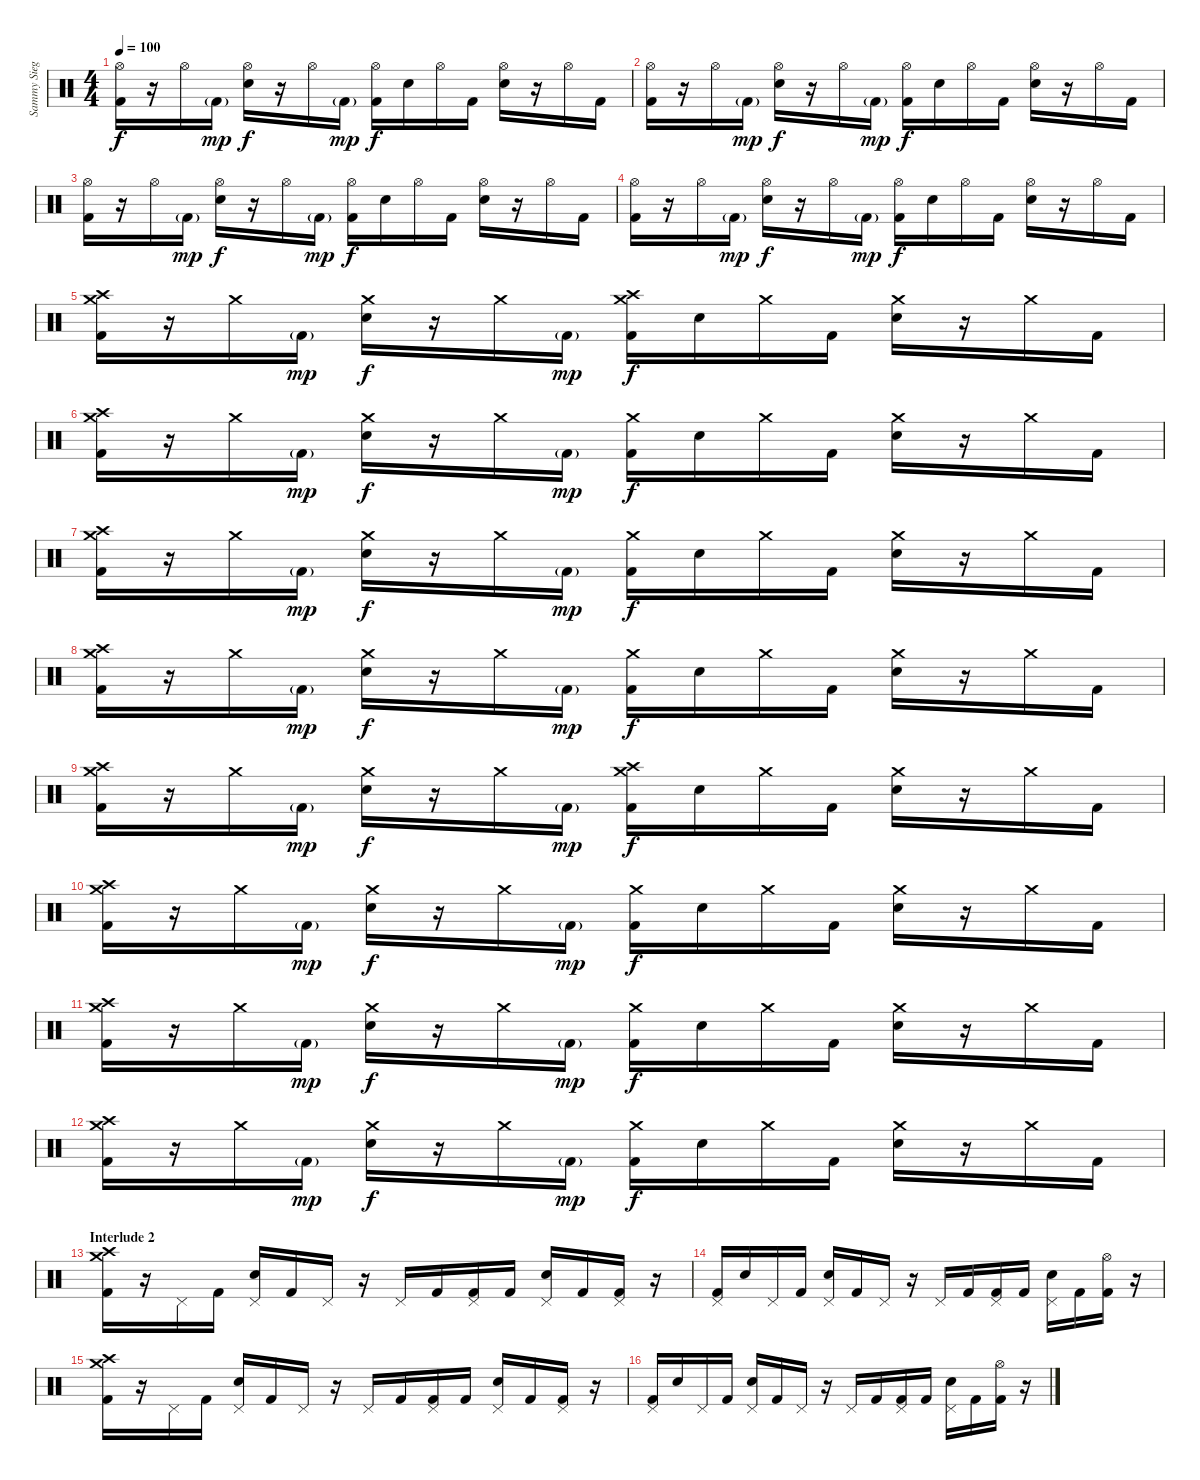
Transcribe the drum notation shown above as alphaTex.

\track ("Sammy Siegler" "Sammy Sieg") {instrument percussion}
\staff {score}
\articulation defaults
\ts (4 4)
\tempo 100
\clef neutral
\ks c
("Hi-Hat (open)" "Kick (hit) 2").16{dy f} r.16 "Hi-Hat (open)".16 "Kick (hit) 2"{g}.16{dy mp} ("Hi-Hat (open)" "Electric Snare (hit)").16{dy f} r.16 "Hi-Hat (open)".16 "Kick (hit) 2"{g}.16{dy mp} ("Hi-Hat (open)" "Kick (hit) 2").16{dy f} "Electric Snare (hit)".16 "Hi-Hat (open)".16 "Kick (hit) 2".16 ("Hi-Hat (open)" "Electric Snare (hit)").16 r.16 "Hi-Hat (open)".16 "Kick (hit) 2".16 |
("Hi-Hat (open)" "Kick (hit) 2").16 r.16 "Hi-Hat (open)".16 "Kick (hit) 2"{g}.16{dy mp} ("Hi-Hat (open)" "Electric Snare (hit)").16{dy f} r.16 "Hi-Hat (open)".16 "Kick (hit) 2"{g}.16{dy mp} ("Hi-Hat (open)" "Kick (hit) 2").16{dy f} "Electric Snare (hit)".16 "Hi-Hat (open)".16 "Kick (hit) 2".16 ("Hi-Hat (open)" "Electric Snare (hit)").16 r.16 "Hi-Hat (open)".16 "Kick (hit) 2".16 |
("Hi-Hat (open)" "Kick (hit) 2").16 r.16 "Hi-Hat (open)".16 "Kick (hit) 2"{g}.16{dy mp} ("Hi-Hat (open)" "Electric Snare (hit)").16{dy f} r.16 "Hi-Hat (open)".16 "Kick (hit) 2"{g}.16{dy mp} ("Hi-Hat (open)" "Kick (hit) 2").16{dy f} "Electric Snare (hit)".16 "Hi-Hat (open)".16 "Kick (hit) 2".16 ("Hi-Hat (open)" "Electric Snare (hit)").16 r.16 "Hi-Hat (open)".16 "Kick (hit) 2".16 |
("Hi-Hat (open)" "Kick (hit) 2").16 r.16 "Hi-Hat (open)".16 "Kick (hit) 2"{g}.16{dy mp} ("Hi-Hat (open)" "Electric Snare (hit)").16{dy f} r.16 "Hi-Hat (open)".16 "Kick (hit) 2"{g}.16{dy mp} ("Hi-Hat (open)" "Kick (hit) 2").16{dy f} "Electric Snare (hit)".16 "Hi-Hat (open)".16 "Kick (hit) 2".16 ("Hi-Hat (open)" "Electric Snare (hit)").16 r.16 "Hi-Hat (open)".16 "Kick (hit) 2".16 |
("Crash medium (hit)" "Crash high (hit)" "Kick (hit) 2").16 r.16 "Crash medium (hit)".16 "Kick (hit) 2"{g}.16{dy mp} ("Crash medium (hit)" "Electric Snare (hit)").16{dy f} r.16 "Crash medium (hit)".16 "Kick (hit) 2"{g}.16{dy mp} ("Crash medium (hit)" "Crash high (hit)" "Kick (hit) 2").16{dy f} "Electric Snare (hit)".16 "Crash medium (hit)".16 "Kick (hit) 2".16 ("Crash medium (hit)" "Electric Snare (hit)").16 r.16 "Crash medium (hit)".16 "Kick (hit) 2".16 |
("Crash medium (hit)" "Crash high (hit)" "Kick (hit) 2").16 r.16 "Crash medium (hit)".16 "Kick (hit) 2"{g}.16{dy mp} ("Crash medium (hit)" "Electric Snare (hit)").16{dy f} r.16 "Crash medium (hit)".16 "Kick (hit) 2"{g}.16{dy mp} ("Crash medium (hit)" "Kick (hit) 2").16{dy f} "Electric Snare (hit)".16 "Crash medium (hit)".16 "Kick (hit) 2".16 ("Crash medium (hit)" "Electric Snare (hit)").16 r.16 "Crash medium (hit)".16 "Kick (hit) 2".16 |
("Crash medium (hit)" "Crash high (hit)" "Kick (hit) 2").16 r.16 "Crash medium (hit)".16 "Kick (hit) 2"{g}.16{dy mp} ("Crash medium (hit)" "Electric Snare (hit)").16{dy f} r.16 "Crash medium (hit)".16 "Kick (hit) 2"{g}.16{dy mp} ("Crash medium (hit)" "Kick (hit) 2").16{dy f} "Electric Snare (hit)".16 "Crash medium (hit)".16 "Kick (hit) 2".16 ("Crash medium (hit)" "Electric Snare (hit)").16 r.16 "Crash medium (hit)".16 "Kick (hit) 2".16 |
("Crash medium (hit)" "Crash high (hit)" "Kick (hit) 2").16 r.16 "Crash medium (hit)".16 "Kick (hit) 2"{g}.16{dy mp} ("Crash medium (hit)" "Electric Snare (hit)").16{dy f} r.16 "Crash medium (hit)".16 "Kick (hit) 2"{g}.16{dy mp} ("Crash medium (hit)" "Kick (hit) 2").16{dy f} "Electric Snare (hit)".16 "Crash medium (hit)".16 "Kick (hit) 2".16 ("Crash medium (hit)" "Electric Snare (hit)").16 r.16 "Crash medium (hit)".16 "Kick (hit) 2".16 |
("Crash medium (hit)" "Crash high (hit)" "Kick (hit) 2").16 r.16 "Crash medium (hit)".16 "Kick (hit) 2"{g}.16{dy mp} ("Crash medium (hit)" "Electric Snare (hit)").16{dy f} r.16 "Crash medium (hit)".16 "Kick (hit) 2"{g}.16{dy mp} ("Crash medium (hit)" "Crash high (hit)" "Kick (hit) 2").16{dy f} "Electric Snare (hit)".16 "Crash medium (hit)".16 "Kick (hit) 2".16 ("Crash medium (hit)" "Electric Snare (hit)").16 r.16 "Crash medium (hit)".16 "Kick (hit) 2".16 |
("Crash medium (hit)" "Crash high (hit)" "Kick (hit) 2").16 r.16 "Crash medium (hit)".16 "Kick (hit) 2"{g}.16{dy mp} ("Crash medium (hit)" "Electric Snare (hit)").16{dy f} r.16 "Crash medium (hit)".16 "Kick (hit) 2"{g}.16{dy mp} ("Crash medium (hit)" "Kick (hit) 2").16{dy f} "Electric Snare (hit)".16 "Crash medium (hit)".16 "Kick (hit) 2".16 ("Crash medium (hit)" "Electric Snare (hit)").16 r.16 "Crash medium (hit)".16 "Kick (hit) 2".16 |
("Crash medium (hit)" "Crash high (hit)" "Kick (hit) 2").16 r.16 "Crash medium (hit)".16 "Kick (hit) 2"{g}.16{dy mp} ("Crash medium (hit)" "Electric Snare (hit)").16{dy f} r.16 "Crash medium (hit)".16 "Kick (hit) 2"{g}.16{dy mp} ("Crash medium (hit)" "Kick (hit) 2").16{dy f} "Electric Snare (hit)".16 "Crash medium (hit)".16 "Kick (hit) 2".16 ("Crash medium (hit)" "Electric Snare (hit)").16 r.16 "Crash medium (hit)".16 "Kick (hit) 2".16 |
("Crash medium (hit)" "Crash high (hit)" "Kick (hit) 2").16 r.16 "Crash medium (hit)".16 "Kick (hit) 2"{g}.16{dy mp} ("Crash medium (hit)" "Electric Snare (hit)").16{dy f} r.16 "Crash medium (hit)".16 "Kick (hit) 2"{g}.16{dy mp} ("Crash medium (hit)" "Kick (hit) 2").16{dy f} "Electric Snare (hit)".16 "Crash medium (hit)".16 "Kick (hit) 2".16 ("Crash medium (hit)" "Electric Snare (hit)").16 r.16 "Crash medium (hit)".16 "Kick (hit) 2".16 |
\section ("" "Interlude 2")
("Crash medium (hit)" "Crash high (hit)" "Kick (hit) 2").16 r.16 "Pedal Hi-Hat (hit)".16 "Kick (hit) 2".16 ("Pedal Hi-Hat (hit)" "Electric Snare (hit)").16 "Kick (hit) 2".16 "Pedal Hi-Hat (hit)".16 r.16 "Pedal Hi-Hat (hit)".16 "Kick (hit) 2".16 ("Pedal Hi-Hat (hit)" "Kick (hit) 2").16 "Kick (hit) 2".16 ("Pedal Hi-Hat (hit)" "Electric Snare (hit)").16 "Kick (hit) 2".16 ("Pedal Hi-Hat (hit)" "Kick (hit) 2").16 r.16 |
("Pedal Hi-Hat (hit)" "Kick (hit) 2").16 "Snare (hit)".16 "Pedal Hi-Hat (hit)".16 "Kick (hit) 2".16 ("Pedal Hi-Hat (hit)" "Electric Snare (hit)").16 "Kick (hit) 2".16 "Pedal Hi-Hat (hit)".16 r.16 "Pedal Hi-Hat (hit)".16 "Kick (hit) 2".16 ("Pedal Hi-Hat (hit)" "Kick (hit) 2").16 "Kick (hit) 2".16 ("Pedal Hi-Hat (hit)" "Electric Snare (hit)").16 "Kick (hit) 2".16 ("Hi-Hat (open)" "Kick (hit) 2").16 r.16 |
("Crash medium (hit)" "Crash high (hit)" "Kick (hit) 2").16 r.16 "Pedal Hi-Hat (hit)".16 "Kick (hit) 2".16 ("Pedal Hi-Hat (hit)" "Electric Snare (hit)").16 "Kick (hit) 2".16 "Pedal Hi-Hat (hit)".16 r.16 "Pedal Hi-Hat (hit)".16 "Kick (hit) 2".16 ("Pedal Hi-Hat (hit)" "Kick (hit) 2").16 "Kick (hit) 2".16 ("Pedal Hi-Hat (hit)" "Electric Snare (hit)").16 "Kick (hit) 2".16 ("Pedal Hi-Hat (hit)" "Kick (hit) 2").16 r.16 |
("Pedal Hi-Hat (hit)" "Kick (hit) 2").16 "Snare (hit)".16 "Pedal Hi-Hat (hit)".16 "Kick (hit) 2".16 ("Pedal Hi-Hat (hit)" "Electric Snare (hit)").16 "Kick (hit) 2".16 "Pedal Hi-Hat (hit)".16 r.16 "Pedal Hi-Hat (hit)".16 "Kick (hit) 2".16 ("Pedal Hi-Hat (hit)" "Kick (hit) 2").16 "Kick (hit) 2".16 ("Pedal Hi-Hat (hit)" "Electric Snare (hit)").16 "Kick (hit) 2".16 ("Hi-Hat (open)" "Kick (hit) 2").16 r.16
